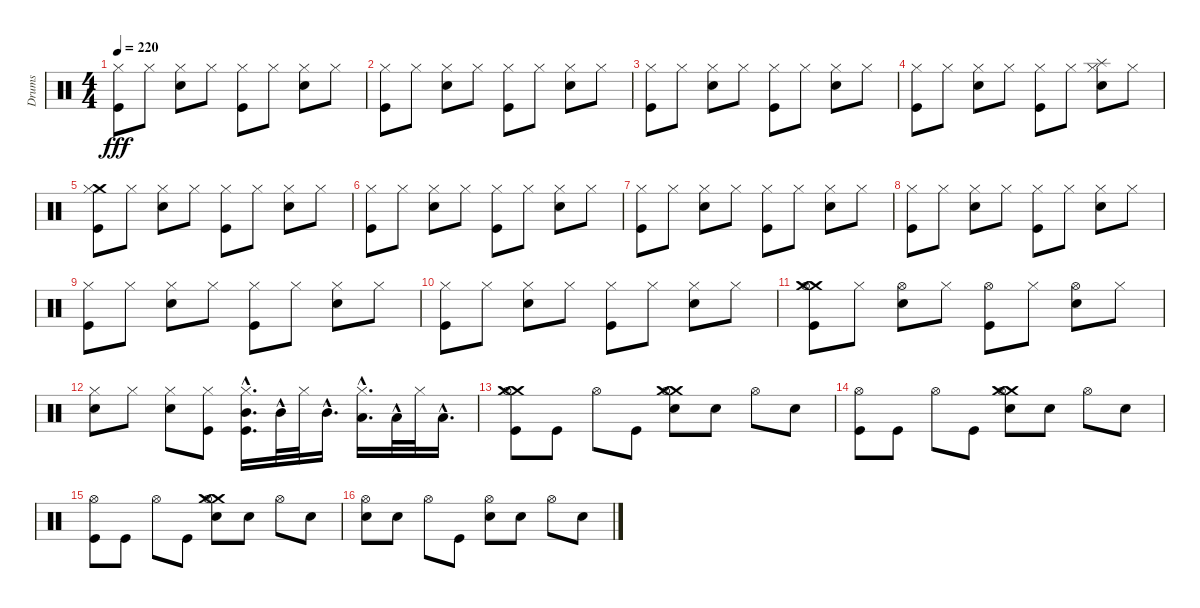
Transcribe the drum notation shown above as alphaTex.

\track ("Drums" "Drums") {instrument percussion}
\staff {score}
\articulation defaults
\ts (4 4)
\tempo 220
\clef neutral
\ks c
("Hi-Hat (closed)" "Kick (hit)").8{dy fff} "Hi-Hat (closed)".8 ("Hi-Hat (closed)" "Snare (hit) 2").8 "Hi-Hat (closed)".8 ("Hi-Hat (closed)" "Kick (hit)").8 "Hi-Hat (closed)".8 ("Hi-Hat (closed)" "Snare (hit) 2").8 "Hi-Hat (closed)".8 |
("Hi-Hat (closed)" "Kick (hit)").8 "Hi-Hat (closed)".8 ("Hi-Hat (closed)" "Snare (hit) 2").8 "Hi-Hat (closed)".8 ("Hi-Hat (closed)" "Kick (hit)").8 "Hi-Hat (closed)".8 ("Hi-Hat (closed)" "Snare (hit) 2").8 "Hi-Hat (closed)".8 |
("Hi-Hat (closed)" "Kick (hit)").8 "Hi-Hat (closed)".8 ("Hi-Hat (closed)" "Snare (hit) 2").8 "Hi-Hat (closed)".8 ("Hi-Hat (closed)" "Kick (hit)").8 "Hi-Hat (closed)".8 ("Hi-Hat (closed)" "Snare (hit) 2").8 "Hi-Hat (closed)".8 |
("Hi-Hat (closed)" "Kick (hit)").8 "Hi-Hat (closed)".8 ("Hi-Hat (closed)" "Snare (hit) 2").8 "Hi-Hat (closed)".8 ("Hi-Hat (closed)" "Kick (hit)").8 "Hi-Hat (closed)".8 ("Splash (hit)" "Hi-Hat (closed)" "Snare (hit) 2").8 "Hi-Hat (closed)".8 |
("Crash medium (hit)" "Hi-Hat (closed)" "Kick (hit)").8 "Hi-Hat (closed)".8 ("Hi-Hat (closed)" "Snare (hit) 2").8 "Hi-Hat (closed)".8 ("Hi-Hat (closed)" "Kick (hit)").8 "Hi-Hat (closed)".8 ("Hi-Hat (closed)" "Snare (hit) 2").8 "Hi-Hat (closed)".8 |
("Hi-Hat (closed)" "Kick (hit)").8 "Hi-Hat (closed)".8 ("Hi-Hat (closed)" "Snare (hit) 2").8 "Hi-Hat (closed)".8 ("Hi-Hat (closed)" "Kick (hit)").8 "Hi-Hat (closed)".8 ("Hi-Hat (closed)" "Snare (hit) 2").8 "Hi-Hat (closed)".8 |
("Hi-Hat (closed)" "Kick (hit)").8 "Hi-Hat (closed)".8 ("Hi-Hat (closed)" "Snare (hit) 2").8 "Hi-Hat (closed)".8 ("Hi-Hat (closed)" "Kick (hit)").8 "Hi-Hat (closed)".8 ("Hi-Hat (closed)" "Snare (hit) 2").8 "Hi-Hat (closed)".8 |
("Hi-Hat (closed)" "Kick (hit)").8 "Hi-Hat (closed)".8 ("Hi-Hat (closed)" "Snare (hit) 2").8 "Hi-Hat (closed)".8 ("Hi-Hat (closed)" "Kick (hit)").8 "Hi-Hat (closed)".8 ("Hi-Hat (closed)" "Snare (hit) 2").8 "Hi-Hat (closed)".8 |
("Hi-Hat (closed)" "Kick (hit)").8 "Hi-Hat (closed)".8 ("Hi-Hat (closed)" "Snare (hit) 2").8 "Hi-Hat (closed)".8 ("Hi-Hat (closed)" "Kick (hit)").8 "Hi-Hat (closed)".8 ("Hi-Hat (closed)" "Snare (hit) 2").8 "Hi-Hat (closed)".8 |
("Hi-Hat (closed)" "Kick (hit)").8 "Hi-Hat (closed)".8 ("Hi-Hat (closed)" "Snare (hit) 2").8 "Hi-Hat (closed)".8 ("Hi-Hat (closed)" "Kick (hit)").8 "Hi-Hat (closed)".8 ("Hi-Hat (closed)" "Snare (hit) 2").8 "Hi-Hat (closed)".8 |
("Crash medium (hit)" "Crash medium (hit)" "Hi-Hat (open)" "Kick (hit)").8 "Hi-Hat (closed)".8 ("Hi-Hat (open)" "Snare (hit) 2").8 "Hi-Hat (closed)".8 ("Hi-Hat (open)" "Kick (hit)").8 "Hi-Hat (closed)".8 ("Hi-Hat (open)" "Snare (hit) 2").8 "Hi-Hat (closed)".8 |
("Snare (hit) 2" "Hi-Hat (closed)").8 "Hi-Hat (closed)".8 ("Snare (hit) 2" "Hi-Hat (closed)").8 ("Kick (hit)" "Hi-Hat (closed)").8 ("Kick (hit)" "Mid Tom (hit)"{hac} "Hi-Hat (closed)").16{d} "Mid Tom (hit)"{hac}.32 "Hi-Hat (closed)".32 "Mid Tom (hit)"{hac}.16{d} ("Low Floor Tom (hit)"{hac} "Hi-Hat (closed)").16{d} "Low Floor Tom (hit)"{hac}.32 "Hi-Hat (closed)".32 "Low Floor Tom (hit)"{hac}.16{d} |
("Crash medium (hit)" "Crash medium (hit)" "Kick (hit)" "Hi-Hat (open)").8 "Kick (hit)".8 "Hi-Hat (open)".8 "Kick (hit)".8 ("Crash medium (hit)" "Crash medium (hit)" "Snare (hit) 2" "Hi-Hat (open)").8 "Snare (hit) 2".8 "Hi-Hat (open)".8 "Snare (hit) 2".8 |
("Kick (hit)" "Hi-Hat (open)").8 "Kick (hit)".8 "Hi-Hat (open)".8 "Kick (hit)".8 ("Crash medium (hit)" "Crash medium (hit)" "Snare (hit) 2" "Hi-Hat (open)").8 "Snare (hit) 2".8 "Hi-Hat (open)".8 "Snare (hit) 2".8 |
("Kick (hit)" "Hi-Hat (open)").8 "Kick (hit)".8 "Hi-Hat (open)".8 "Kick (hit)".8 ("Crash medium (hit)" "Crash medium (hit)" "Snare (hit) 2" "Hi-Hat (open)").8 "Snare (hit) 2".8 "Hi-Hat (open)".8 "Snare (hit) 2".8 |
("Snare (hit) 2" "Hi-Hat (open)").8 "Snare (hit) 2".8 "Hi-Hat (open)".8 "Kick (hit)".8 ("Snare (hit) 2" "Hi-Hat (open)").8 "Snare (hit) 2".8 "Hi-Hat (open)".8 "Snare (hit) 2".8
